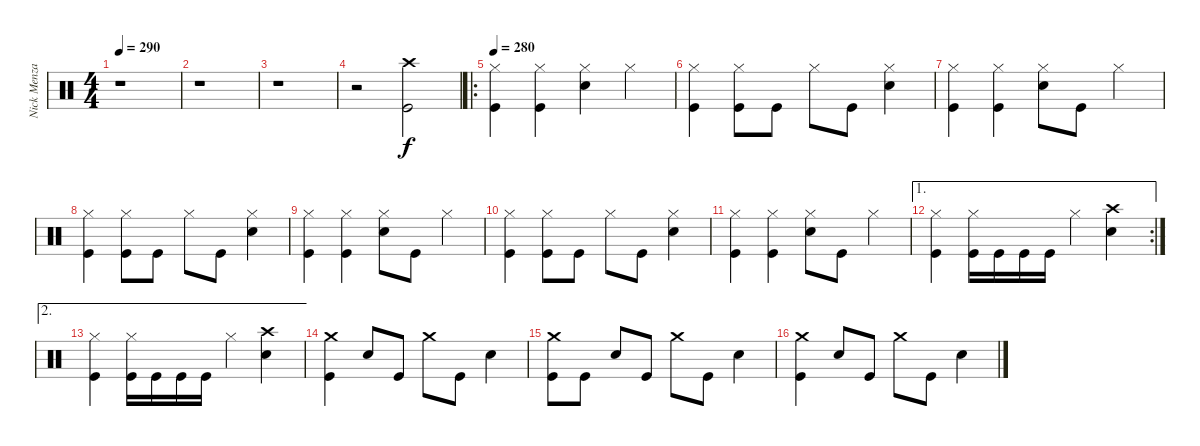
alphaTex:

\track ("Nick Menza" "Nick Menza") {instrument percussion}
\staff {score}
\articulation defaults
\ts (4 4)
\tempo 290
\clef neutral
\ks c
r.1{dy f} |
r.1 |
r.1 |
r.2 ("Crash high (hit)" "Kick (hit)").2 |
\ro
\tempo 280
("Hi-Hat (closed)" "Kick (hit)").4 ("Hi-Hat (closed)" "Kick (hit)").4 ("Hi-Hat (closed)" "Snare (hit) 2").4 "Hi-Hat (closed)".4 |
("Hi-Hat (closed)" "Kick (hit)").4 ("Hi-Hat (closed)" "Kick (hit)").8 "Kick (hit)".8 "Hi-Hat (closed)".8 "Kick (hit)".8 ("Hi-Hat (closed)" "Snare (hit) 2").4 |
("Hi-Hat (closed)" "Kick (hit)").4 ("Hi-Hat (closed)" "Kick (hit)").4 ("Hi-Hat (closed)" "Snare (hit) 2").8 "Kick (hit)".8 "Hi-Hat (closed)".4 |
("Hi-Hat (closed)" "Kick (hit)").4 ("Hi-Hat (closed)" "Kick (hit)").8 "Kick (hit)".8 "Hi-Hat (closed)".8 "Kick (hit)".8 ("Hi-Hat (closed)" "Snare (hit) 2").4 |
("Hi-Hat (closed)" "Kick (hit)").4 ("Hi-Hat (closed)" "Kick (hit)").4 ("Hi-Hat (closed)" "Snare (hit) 2").8 "Kick (hit)".8 "Hi-Hat (closed)".4 |
("Hi-Hat (closed)" "Kick (hit)").4 ("Hi-Hat (closed)" "Kick (hit)").8 "Kick (hit)".8 "Hi-Hat (closed)".8 "Kick (hit)".8 ("Hi-Hat (closed)" "Snare (hit) 2").4 |
("Hi-Hat (closed)" "Kick (hit)").4 ("Hi-Hat (closed)" "Kick (hit)").4 ("Hi-Hat (closed)" "Snare (hit) 2").8 "Kick (hit)".8 "Hi-Hat (closed)".4 |
\ae 1
\rc 2
("Hi-Hat (closed)" "Kick (hit)").4 ("Hi-Hat (closed)" "Kick (hit)").16 "Kick (hit)".16 "Kick (hit)".16 "Kick (hit)".16 "Hi-Hat (closed)".4 ("Crash high (hit)" "Snare (hit) 2").4 |
\ae 2
("Hi-Hat (closed)" "Kick (hit)").4 ("Hi-Hat (closed)" "Kick (hit)").16 "Kick (hit)".16 "Kick (hit)".16 "Kick (hit)".16 "Hi-Hat (closed)".4 ("Crash high (hit)" "Snare (hit) 2").4 |
("Crash medium (hit)" "Kick (hit)").4 "Snare (hit) 2".8 "Kick (hit)".8 "Crash medium (hit)".8 "Kick (hit)".8 "Snare (hit) 2".4 |
("Crash medium (hit)" "Kick (hit)").8 "Kick (hit)".8 "Snare (hit) 2".8 "Kick (hit)".8 "Crash medium (hit)".8 "Kick (hit)".8 "Snare (hit) 2".4 |
("Crash medium (hit)" "Kick (hit)").4 "Snare (hit) 2".8 "Kick (hit)".8 "Crash medium (hit)".8 "Kick (hit)".8 "Snare (hit) 2".4
